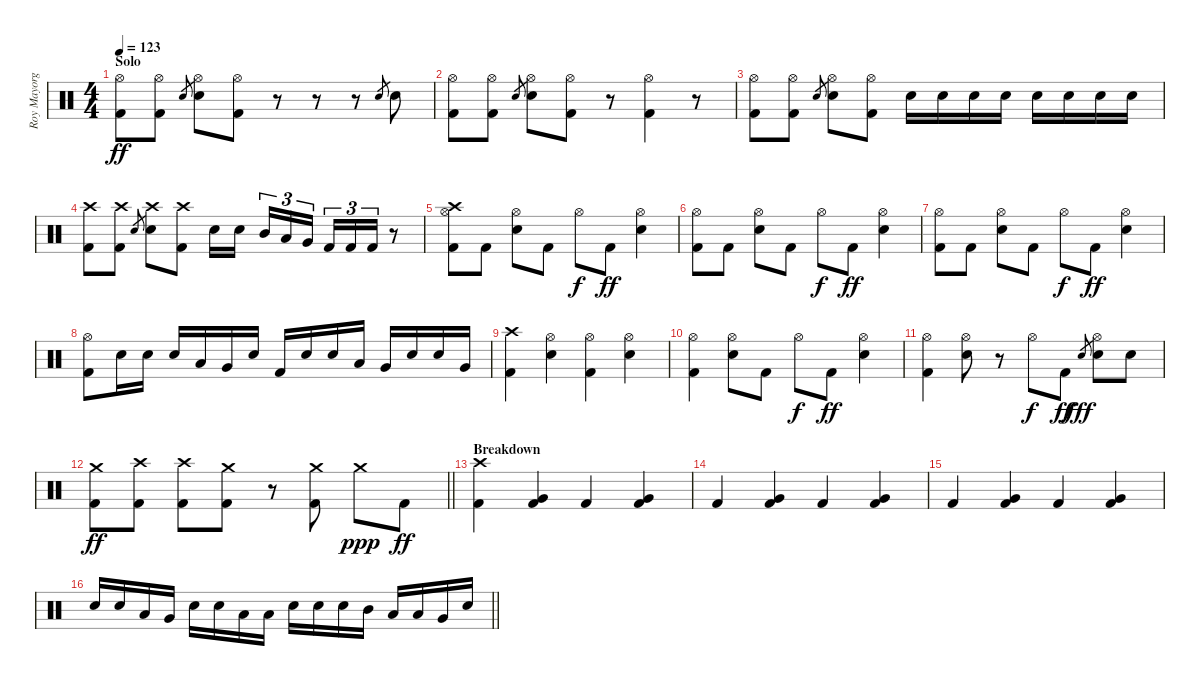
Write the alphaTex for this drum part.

\track ("Roy Mayorga (Drums)" "Roy Mayorg") {instrument percussion}
\staff {score}
\articulation defaults
\ts (4 4)
\section ("" "Solo")
\tempo 123
\clef neutral
\ks c
("Hi-Hat (open)" "Kick (hit) 2").8{dy ff} ("Hi-Hat (open)" "Kick (hit) 2").8 "Electric Snare (hit)".8{gr} ("Hi-Hat (open)" "Electric Snare (hit)").8 ("Hi-Hat (open)" "Kick (hit) 2").8 r.8 r.8 r.8 "Electric Snare (hit)".8{gr} "Electric Snare (hit)".8 |
("Hi-Hat (open)" "Kick (hit) 2").8 ("Hi-Hat (open)" "Kick (hit) 2").8 "Electric Snare (hit)".8{gr} ("Hi-Hat (open)" "Electric Snare (hit)").8 ("Hi-Hat (open)" "Kick (hit) 2").8 r.8 ("Hi-Hat (open)" "Kick (hit) 2").4 r.8 |
("Hi-Hat (open)" "Kick (hit) 2").8 ("Hi-Hat (open)" "Kick (hit) 2").8 "Electric Snare (hit)".8{gr} ("Hi-Hat (open)" "Electric Snare (hit)").8 ("Hi-Hat (open)" "Kick (hit) 2").8 "Electric Snare (hit)".16 "Electric Snare (hit)".16 "Electric Snare (hit)".16 "Electric Snare (hit)".16 "Electric Snare (hit)".16 "Electric Snare (hit)".16 "Electric Snare (hit)".16 "Electric Snare (hit)".16 |
("Crash high (hit)" "Kick (hit) 2").8 ("Crash high (hit)" "Kick (hit) 2").8 "Electric Snare (hit)".8{gr} ("Crash high (hit)" "Electric Snare (hit)").8 ("Crash high (hit)" "Kick (hit) 2").8 "Electric Snare (hit)".16 "Electric Snare (hit)".16{beam splitsecondary} "Mid Tom (hit)".16{tu (3 2)} "Low Tom (hit)".16{tu (3 2)} "Very Low Tom (hit)".16{tu (3 2)} "Kick (hit) 2".16{tu (3 2)} "Kick (hit) 2".16{tu (3 2)} "Kick (hit) 2".16{tu (3 2)} r.8 |
("Crash high (hit)" "Hi-Hat (open)" "Kick (hit) 2").8 "Kick (hit) 2".8 ("Hi-Hat (open)" "Electric Snare (hit)").8 "Kick (hit) 2".8 "Hi-Hat (open)".8{dy f} "Kick (hit) 2".8{dy ff} ("Hi-Hat (open)" "Electric Snare (hit)").4 |
("Hi-Hat (open)" "Kick (hit) 2").8 "Kick (hit) 2".8 ("Hi-Hat (open)" "Electric Snare (hit)").8 "Kick (hit) 2".8 "Hi-Hat (open)".8{dy f} "Kick (hit) 2".8{dy ff} ("Hi-Hat (open)" "Electric Snare (hit)").4 |
("Hi-Hat (open)" "Kick (hit) 2").8 "Kick (hit) 2".8 ("Hi-Hat (open)" "Electric Snare (hit)").8 "Kick (hit) 2".8 "Hi-Hat (open)".8{dy f} "Kick (hit) 2".8{dy ff} ("Hi-Hat (open)" "Electric Snare (hit)").4 |
("Hi-Hat (open)" "Kick (hit) 2").8 "Electric Snare (hit)".16 "Electric Snare (hit)".16 "Electric Snare (hit)".16 "Low Tom (hit)".16 "Very Low Tom (hit)".16 "Electric Snare (hit)".16 "Kick (hit) 2".16 "Electric Snare (hit)".16 "Electric Snare (hit)".16 "Low Tom (hit)".16 "Very Low Tom (hit)".16 "Electric Snare (hit)".16 "Electric Snare (hit)".16 "Very Low Tom (hit)".16 |
("Crash high (hit)" "Kick (hit) 2").4 ("Hi-Hat (open)" "Electric Snare (hit)").4 ("Hi-Hat (open)" "Kick (hit) 2").4 ("Hi-Hat (open)" "Electric Snare (hit)").4 |
("Hi-Hat (open)" "Kick (hit) 2").4 ("Hi-Hat (open)" "Electric Snare (hit)").8 "Kick (hit) 2".8 "Hi-Hat (open)".8{dy f} "Kick (hit) 2".8{dy ff} ("Hi-Hat (open)" "Electric Snare (hit)").4 |
("Hi-Hat (open)" "Kick (hit) 2").4 ("Hi-Hat (open)" "Electric Snare (hit)").8 r.8 "Hi-Hat (open)".8{dy f} "Kick (hit) 2".8{dy ff} "Electric Snare (hit)".8{gr dy fff} ("Hi-Hat (open)" "Electric Snare (hit)").8 "Electric Snare (hit)".8 |
\barLineRight lightlight
("Crash medium (hit)" "Kick (hit) 2").8{dy ff} ("Crash high (hit)" "Kick (hit) 2").8 ("Crash high (hit)" "Kick (hit) 2").8 ("Crash medium (hit)" "Kick (hit) 2").8 r.8 ("Crash medium (hit)" "Kick (hit) 2").8 "Crash medium (hit)".8{dy ppp} "Kick (hit) 2".8{dy ff} |
\section ("" "Breakdown")
("Crash high (hit)" "Kick (hit) 2").4 ("Very Low Tom (hit)" "Kick (hit) 2").4 "Kick (hit) 2".4 ("Very Low Tom (hit)" "Kick (hit) 2").4 |
"Kick (hit) 2".4 ("Very Low Tom (hit)" "Kick (hit) 2").4 "Kick (hit) 2".4 ("Very Low Tom (hit)" "Kick (hit) 2").4 |
"Kick (hit) 2".4 ("Very Low Tom (hit)" "Kick (hit) 2").4 "Kick (hit) 2".4 ("Very Low Tom (hit)" "Kick (hit) 2").4 |
\barLineRight lightlight "Electric Snare (hit)".16 "Electric Snare (hit)".16 "Low Tom (hit)".16 "Very Low Tom (hit)".16 "Electric Snare (hit)".16 "Electric Snare (hit)".16 "Low Tom (hit)".16 "Low Tom (hit)".16 "Electric Snare (hit)".16 "Electric Snare (hit)".16 "Electric Snare (hit)".16 "Mid Tom (hit)".16 "Low Tom (hit)".16 "Low Tom (hit)".16 "Very Low Tom (hit)".16 "Electric Snare (hit)".16
